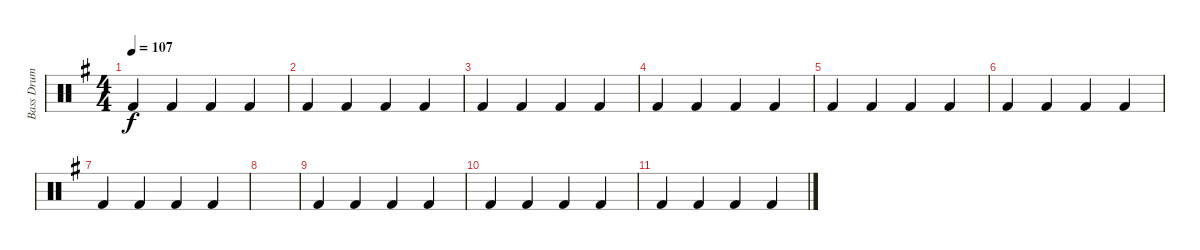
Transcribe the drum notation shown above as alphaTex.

\track ("Bass Drum" "Bass Drum") {instrument percussion}
\staff {score}
\articulation defaults
\ts (4 4)
\tempo 107
\clef neutral
\ks g "Kick (hit) 2".4{dy f} "Kick (hit) 2".4 "Kick (hit) 2".4 "Kick (hit) 2".4
|
"Kick (hit) 2".4 "Kick (hit) 2".4 "Kick (hit) 2".4 "Kick (hit) 2".4 |
"Kick (hit) 2".4 "Kick (hit) 2".4 "Kick (hit) 2".4 "Kick (hit) 2".4 |
"Kick (hit) 2".4 "Kick (hit) 2".4 "Kick (hit) 2".4 "Kick (hit) 2".4 |
"Kick (hit) 2".4 "Kick (hit) 2".4 "Kick (hit) 2".4 "Kick (hit) 2".4 |
"Kick (hit) 2".4 "Kick (hit) 2".4 "Kick (hit) 2".4 "Kick (hit) 2".4 |
"Kick (hit) 2".4 "Kick (hit) 2".4 "Kick (hit) 2".4 "Kick (hit) 2".4 |
|
"Kick (hit) 2".4 "Kick (hit) 2".4 "Kick (hit) 2".4 "Kick (hit) 2".4 |
"Kick (hit) 2".4 "Kick (hit) 2".4 "Kick (hit) 2".4 "Kick (hit) 2".4 |
"Kick (hit) 2".4 "Kick (hit) 2".4 "Kick (hit) 2".4 "Kick (hit) 2".4
